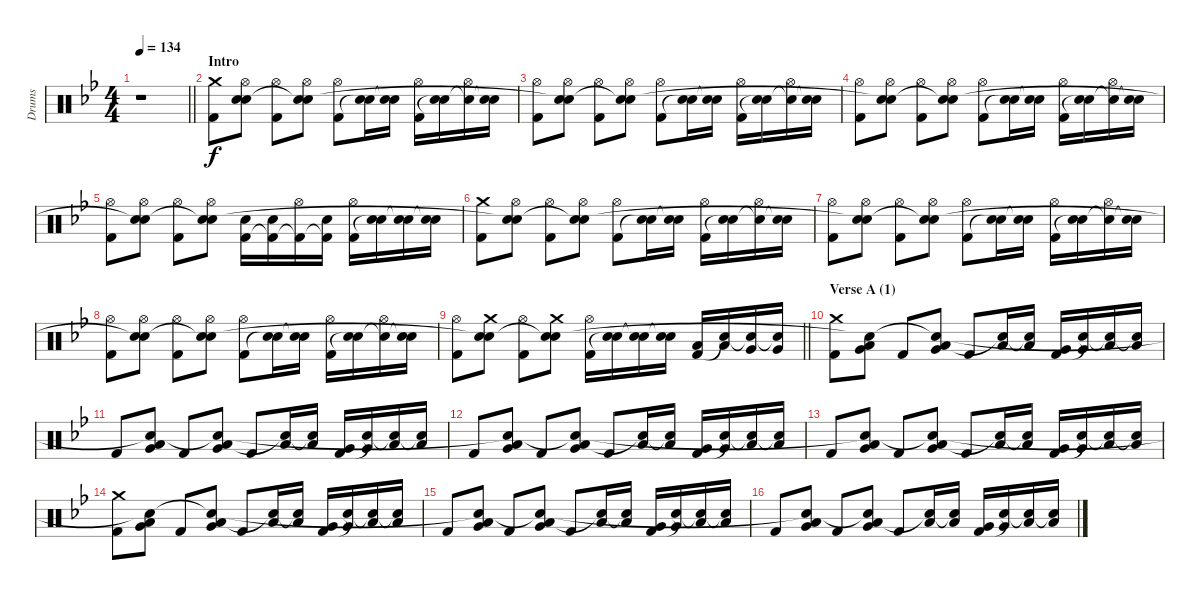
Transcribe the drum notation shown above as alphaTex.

\track ("Drums" "Drums") {instrument percussion}
\staff {score}
\articulation defaults
\ts (4 4)
\tempo 134
\clef neutral
\barLineRight lightlight
\ks gminor
r.1{dy f} |
\section ("" "Intro")
("Crash medium (hit)" "Kick (hit) 2").8 ("Hi-Hat (open)" "Electric Snare (hit)" "Snare (hit)").8 ("Hi-Hat (open)" "Kick (hit) 2").8 ("Hi-Hat (open)" "Electric Snare (hit)" "Snare (hit)"{t}).8 ("Hi-Hat (open)" "Kick (hit) 2").8 ("Electric Snare (hit)" "Snare (hit)"{t}).16 ("Electric Snare (hit)" "Snare (hit)"{t}).16 ("Hi-Hat (open)" "Kick (hit) 2").16 ("Electric Snare (hit)" "Snare (hit)"{t}).16 ("Hi-Hat (open)" "Snare (hit)"{t}).16 ("Electric Snare (hit)" "Snare (hit)"{t}).16 |
("Hi-Hat (open)" "Kick (hit) 2").8 ("Hi-Hat (open)" "Electric Snare (hit)" "Snare (hit)"{t}).8 ("Hi-Hat (open)" "Kick (hit) 2").8 ("Hi-Hat (open)" "Electric Snare (hit)" "Snare (hit)"{t}).8 ("Hi-Hat (open)" "Kick (hit) 2").8 ("Electric Snare (hit)" "Snare (hit)"{t}).16 ("Electric Snare (hit)" "Snare (hit)"{t}).16 ("Hi-Hat (open)" "Kick (hit) 2").16 ("Electric Snare (hit)" "Snare (hit)"{t}).16 ("Hi-Hat (open)" "Snare (hit)"{t}).16 ("Electric Snare (hit)" "Snare (hit)"{t}).16 |
("Hi-Hat (open)" "Kick (hit) 2").8 ("Hi-Hat (open)" "Electric Snare (hit)" "Snare (hit)"{t}).8 ("Hi-Hat (open)" "Kick (hit) 2").8 ("Hi-Hat (open)" "Electric Snare (hit)" "Snare (hit)"{t}).8 ("Hi-Hat (open)" "Kick (hit) 2").8 ("Electric Snare (hit)" "Snare (hit)"{t}).16 ("Electric Snare (hit)" "Snare (hit)"{t}).16 ("Hi-Hat (open)" "Kick (hit) 2").16 ("Electric Snare (hit)" "Snare (hit)"{t}).16 ("Hi-Hat (open)" "Snare (hit)"{t}).16 ("Electric Snare (hit)" "Snare (hit)"{t}).16 |
("Hi-Hat (open)" "Kick (hit) 2").8 ("Hi-Hat (open)" "Electric Snare (hit)" "Snare (hit)"{t}).8 ("Hi-Hat (open)" "Kick (hit) 2").8 ("Hi-Hat (open)" "Electric Snare (hit)" "Snare (hit)"{t}).8 ("Electric Snare (hit)" "Kick (hit) 2").16 ("Electric Snare (hit)" "Kick (hit) 2"{t}).16 ("Hi-Hat (open)" "Kick (hit) 2"{t}).16 ("Electric Snare (hit)" "Kick (hit) 2"{t}).16 ("Hi-Hat (open)" "Kick (hit) 2").16 ("Electric Snare (hit)" "Snare (hit)"{t}).16 ("Electric Snare (hit)" "Snare (hit)"{t}).16 ("Electric Snare (hit)" "Snare (hit)"{t}).16 |
("Crash medium (hit)" "Kick (hit) 2").8 ("Hi-Hat (open)" "Electric Snare (hit)" "Snare (hit)"{t}).8 ("Hi-Hat (open)" "Kick (hit) 2").8 ("Hi-Hat (open)" "Electric Snare (hit)" "Snare (hit)"{t}).8 ("Hi-Hat (open)" "Kick (hit) 2").8 ("Electric Snare (hit)" "Snare (hit)"{t}).16 ("Electric Snare (hit)" "Snare (hit)"{t}).16 ("Hi-Hat (open)" "Kick (hit) 2").16 ("Electric Snare (hit)" "Snare (hit)"{t}).16 ("Hi-Hat (open)" "Snare (hit)"{t}).16 ("Electric Snare (hit)" "Snare (hit)"{t}).16 |
("Hi-Hat (open)" "Kick (hit) 2").8 ("Hi-Hat (open)" "Electric Snare (hit)" "Snare (hit)"{t}).8 ("Hi-Hat (open)" "Kick (hit) 2").8 ("Hi-Hat (open)" "Electric Snare (hit)" "Snare (hit)"{t}).8 ("Hi-Hat (open)" "Kick (hit) 2").8 ("Electric Snare (hit)" "Snare (hit)"{t}).16 ("Electric Snare (hit)" "Snare (hit)"{t}).16 ("Hi-Hat (open)" "Kick (hit) 2").16 ("Electric Snare (hit)" "Snare (hit)"{t}).16 ("Hi-Hat (open)" "Snare (hit)"{t}).16 ("Electric Snare (hit)" "Snare (hit)"{t}).16 |
("Hi-Hat (open)" "Kick (hit) 2").8 ("Hi-Hat (open)" "Electric Snare (hit)" "Snare (hit)"{t}).8 ("Hi-Hat (open)" "Kick (hit) 2").8 ("Hi-Hat (open)" "Electric Snare (hit)" "Snare (hit)"{t}).8 ("Hi-Hat (open)" "Kick (hit) 2").8 ("Electric Snare (hit)" "Snare (hit)"{t}).16 ("Electric Snare (hit)" "Snare (hit)"{t}).16 ("Hi-Hat (open)" "Kick (hit) 2").16 ("Electric Snare (hit)" "Snare (hit)"{t}).16 ("Hi-Hat (open)" "Snare (hit)"{t}).16 ("Electric Snare (hit)" "Snare (hit)"{t}).16 |
\barLineRight lightlight
("Hi-Hat (open)" "Kick (hit) 2").8 ("Crash medium (hit)" "Electric Snare (hit)" "Snare (hit)"{t}).8 ("Hi-Hat (open)" "Kick (hit) 2").8 ("Crash medium (hit)" "Electric Snare (hit)" "Snare (hit)"{t}).8 ("Hi-Hat (open)" "Kick (hit) 2").16 ("Electric Snare (hit)" "Snare (hit)"{t}).16 ("Electric Snare (hit)" "Snare (hit)"{t}).16 ("Electric Snare (hit)" "Snare (hit)"{t}).16 ("Low Tom (hit)" "Kick (hit) 2").16 ("Low Tom (hit)" "Snare (hit)"{t}).16 ("Very Low Tom (hit)" "Snare (hit)"{t}).16 ("Very Low Tom (hit)" "Snare (hit)"{t}).16 |
\section ("" "Verse A (1)")
("Crash medium (hit)" "Kick (hit) 2").8 ("Very Low Tom (hit)" "Low Floor Tom (hit)" "Snare (hit)"{t}).8 "Kick (hit) 2".8 ("Very Low Tom (hit)" "Low Floor Tom (hit)" "Snare (hit)"{t}).8 "Kick (hit) 2".8 ("Low Tom (hit)" "Snare (hit)"{t}).16 ("Low Tom (hit)" "Snare (hit)"{t}).16 ("Very Low Tom (hit)" "Kick (hit) 2").16 ("Very Low Tom (hit)" "Snare (hit)"{t}).16 ("Low Floor Tom (hit)" "Snare (hit)"{t}).16 ("Low Floor Tom (hit)" "Snare (hit)"{t}).16 |
"Kick (hit) 2".8 ("Very Low Tom (hit)" "Low Floor Tom (hit)" "Snare (hit)"{t}).8 "Kick (hit) 2".8 ("Very Low Tom (hit)" "Low Floor Tom (hit)" "Snare (hit)"{t}).8 "Kick (hit) 2".8 ("Low Tom (hit)" "Snare (hit)"{t}).16 ("Low Tom (hit)" "Snare (hit)"{t}).16 ("Very Low Tom (hit)" "Kick (hit) 2").16 ("Very Low Tom (hit)" "Snare (hit)"{t}).16 ("Low Floor Tom (hit)" "Snare (hit)"{t}).16 ("Low Floor Tom (hit)" "Snare (hit)"{t}).16 |
"Kick (hit) 2".8 ("Very Low Tom (hit)" "Low Floor Tom (hit)" "Snare (hit)"{t}).8 "Kick (hit) 2".8 ("Very Low Tom (hit)" "Low Floor Tom (hit)" "Snare (hit)"{t}).8 "Kick (hit) 2".8 ("Low Tom (hit)" "Snare (hit)"{t}).16 ("Low Tom (hit)" "Snare (hit)"{t}).16 ("Very Low Tom (hit)" "Kick (hit) 2").16 ("Very Low Tom (hit)" "Snare (hit)"{t}).16 ("Low Floor Tom (hit)" "Snare (hit)"{t}).16 ("Low Floor Tom (hit)" "Snare (hit)"{t}).16 |
"Kick (hit) 2".8 ("Very Low Tom (hit)" "Low Floor Tom (hit)" "Snare (hit)"{t}).8 "Kick (hit) 2".8 ("Very Low Tom (hit)" "Low Floor Tom (hit)" "Snare (hit)"{t}).8 "Kick (hit) 2".8 ("Low Tom (hit)" "Snare (hit)"{t}).16 ("Low Tom (hit)" "Snare (hit)"{t}).16 ("Very Low Tom (hit)" "Kick (hit) 2").16 ("Very Low Tom (hit)" "Snare (hit)"{t}).16 ("Low Floor Tom (hit)" "Snare (hit)"{t}).16 ("Low Floor Tom (hit)" "Snare (hit)"{t}).16 |
("Crash medium (hit)" "Kick (hit) 2").8 ("Very Low Tom (hit)" "Low Floor Tom (hit)" "Snare (hit)"{t}).8 "Kick (hit) 2".8 ("Very Low Tom (hit)" "Low Floor Tom (hit)" "Snare (hit)"{t}).8 "Kick (hit) 2".8 ("Low Tom (hit)" "Snare (hit)"{t}).16 ("Low Tom (hit)" "Snare (hit)"{t}).16 ("Very Low Tom (hit)" "Kick (hit) 2").16 ("Very Low Tom (hit)" "Snare (hit)"{t}).16 ("Low Floor Tom (hit)" "Snare (hit)"{t}).16 ("Low Floor Tom (hit)" "Snare (hit)"{t}).16 |
"Kick (hit) 2".8 ("Very Low Tom (hit)" "Low Floor Tom (hit)" "Snare (hit)"{t}).8 "Kick (hit) 2".8 ("Very Low Tom (hit)" "Low Floor Tom (hit)" "Snare (hit)"{t}).8 "Kick (hit) 2".8 ("Low Tom (hit)" "Snare (hit)"{t}).16 ("Low Tom (hit)" "Snare (hit)"{t}).16 ("Very Low Tom (hit)" "Kick (hit) 2").16 ("Very Low Tom (hit)" "Snare (hit)"{t}).16 ("Low Floor Tom (hit)" "Snare (hit)"{t}).16 ("Low Floor Tom (hit)" "Snare (hit)"{t}).16 |
"Kick (hit) 2".8 ("Very Low Tom (hit)" "Low Floor Tom (hit)" "Snare (hit)"{t}).8 "Kick (hit) 2".8 ("Very Low Tom (hit)" "Low Floor Tom (hit)" "Snare (hit)"{t}).8 "Kick (hit) 2".8 ("Low Tom (hit)" "Snare (hit)"{t}).16 ("Low Tom (hit)" "Snare (hit)"{t}).16 ("Very Low Tom (hit)" "Kick (hit) 2").16 ("Very Low Tom (hit)" "Snare (hit)"{t}).16 ("Low Floor Tom (hit)" "Snare (hit)"{t}).16 ("Low Floor Tom (hit)" "Snare (hit)"{t}).16
